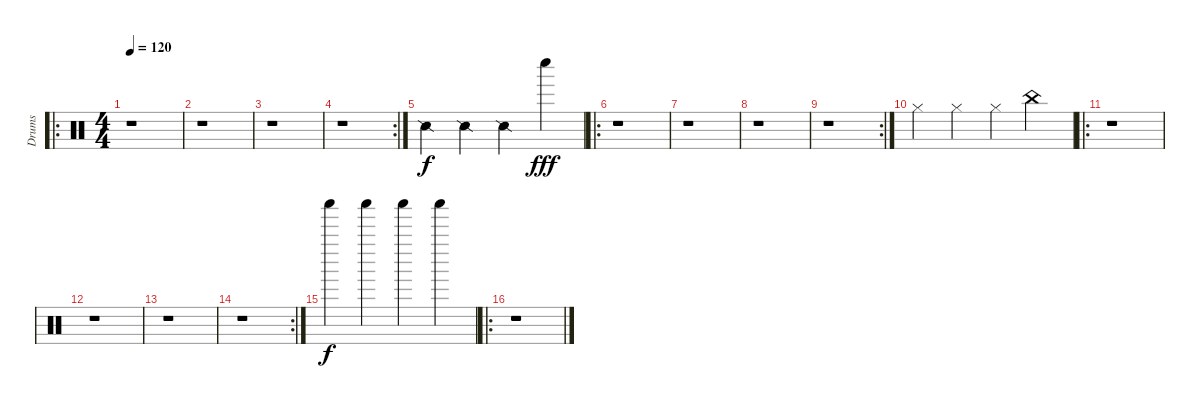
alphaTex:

\track ("Drums" "Drums") {instrument percussion}
\staff {score}
\articulation defaults
\ro
\ts (4 4)
\tempo 120
\clef neutral
\ks c
r.1{dy f} |
r.1 |
r.1 |
\rc 2
r.1 |
"Snare (side stick) 2".4 "Snare (side stick) 2".4 "Snare (side stick) 2".4 "Whistle low (hit)".4{dy fff} |
\ro
r.1 |
r.1 |
r.1 |
\rc 2
r.1 |
"Hi-Hat (closed)".4 "Hi-Hat (closed)".4 "Hi-Hat (closed)".4 "China (hit)".4 |
\ro
r.1 |
r.1 |
r.1 |
\rc 2
r.1 |
"Shaker (hit)".4{dy f} "Shaker (hit)".4 "Shaker (hit)".4 "Shaker (hit)".4 |
\ro
r.1
